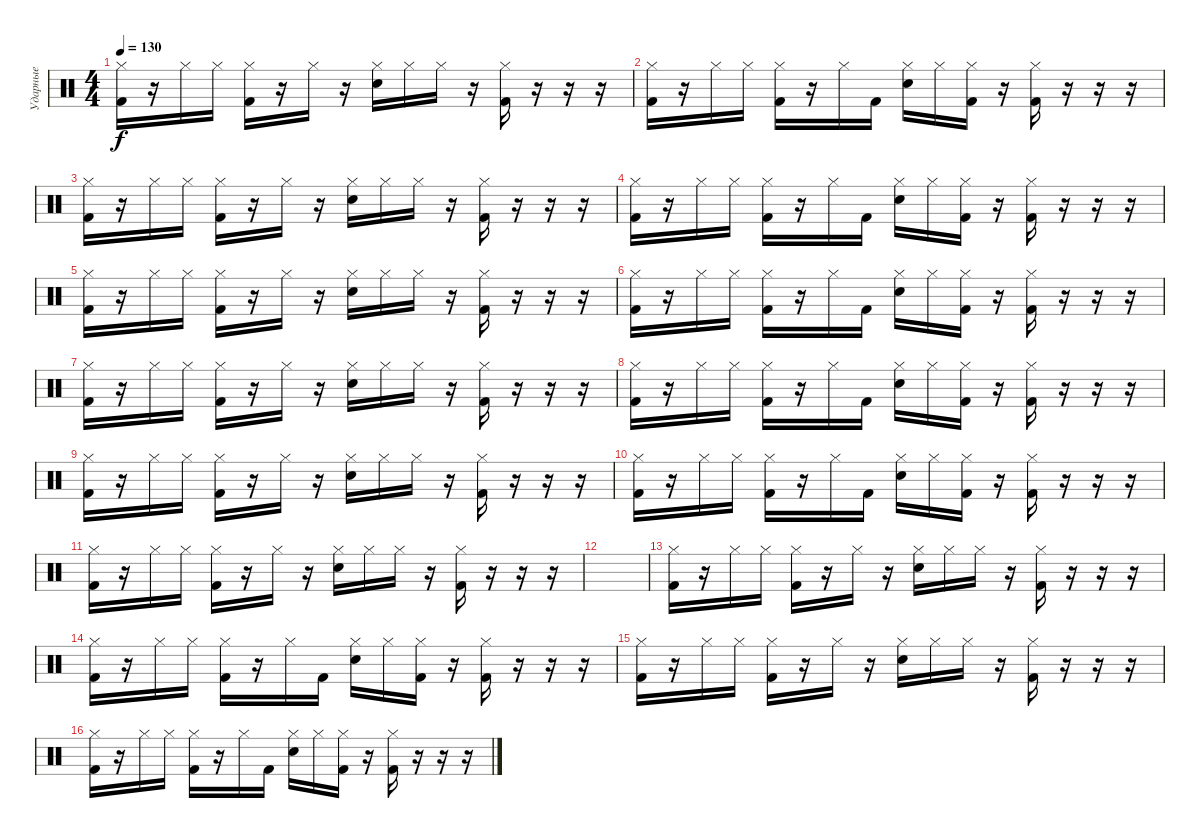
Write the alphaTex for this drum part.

\track ("Ударные" "Ударные") {instrument percussion}
\staff {score}
\articulation defaults
\ts (4 4)
\tempo 130
\clef neutral
\ks c
("Kick (hit) 2" "Hi-Hat (closed)").16{dy f volume 16} r.16 "Hi-Hat (closed)".16 "Hi-Hat (closed)".16 ("Kick (hit) 2" "Hi-Hat (closed)").16 r.16 "Hi-Hat (closed)".16 r.16 ("Snare (hit) 2" "Hi-Hat (closed)").16 "Hi-Hat (closed)".16 "Hi-Hat (closed)".16 r.16 ("Kick (hit) 2" "Hi-Hat (closed)").16 r.16 r.16 r.16 |
("Kick (hit) 2" "Hi-Hat (closed)").16 r.16 "Hi-Hat (closed)".16 "Hi-Hat (closed)".16 ("Kick (hit) 2" "Hi-Hat (closed)").16 r.16 "Hi-Hat (closed)".16 "Kick (hit) 2".16 ("Snare (hit) 2" "Hi-Hat (closed)").16 "Hi-Hat (closed)".16 ("Kick (hit) 2" "Hi-Hat (closed)").16 r.16 ("Kick (hit) 2" "Hi-Hat (closed)").16 r.16 r.16 r.16 |
("Hi-Hat (closed)" "Kick (hit) 2").16 r.16 "Hi-Hat (closed)".16 "Hi-Hat (closed)".16 ("Kick (hit) 2" "Hi-Hat (closed)").16 r.16 "Hi-Hat (closed)".16 r.16 ("Snare (hit) 2" "Hi-Hat (closed)").16 "Hi-Hat (closed)".16 "Hi-Hat (closed)".16 r.16 ("Kick (hit) 2" "Hi-Hat (closed)").16 r.16 r.16 r.16 |
("Kick (hit) 2" "Hi-Hat (closed)").16 r.16 "Hi-Hat (closed)".16 "Hi-Hat (closed)".16 ("Kick (hit) 2" "Hi-Hat (closed)").16 r.16 "Hi-Hat (closed)".16 "Kick (hit) 2".16 ("Snare (hit) 2" "Hi-Hat (closed)").16 "Hi-Hat (closed)".16 ("Kick (hit) 2" "Hi-Hat (closed)").16 r.16 ("Kick (hit) 2" "Hi-Hat (closed)").16 r.16 r.16 r.16 |
("Kick (hit) 2" "Hi-Hat (closed)").16{volume 16} r.16 "Hi-Hat (closed)".16 "Hi-Hat (closed)".16 ("Kick (hit) 2" "Hi-Hat (closed)").16 r.16 "Hi-Hat (closed)".16 r.16 ("Snare (hit) 2" "Hi-Hat (closed)").16 "Hi-Hat (closed)".16 "Hi-Hat (closed)".16 r.16 ("Kick (hit) 2" "Hi-Hat (closed)").16 r.16 r.16 r.16 |
("Kick (hit) 2" "Hi-Hat (closed)").16 r.16 "Hi-Hat (closed)".16 "Hi-Hat (closed)".16 ("Kick (hit) 2" "Hi-Hat (closed)").16 r.16 "Hi-Hat (closed)".16 "Kick (hit) 2".16 ("Snare (hit) 2" "Hi-Hat (closed)").16 "Hi-Hat (closed)".16 ("Kick (hit) 2" "Hi-Hat (closed)").16 r.16 ("Kick (hit) 2" "Hi-Hat (closed)").16 r.16 r.16 r.16 |
("Hi-Hat (closed)" "Kick (hit) 2").16 r.16 "Hi-Hat (closed)".16 "Hi-Hat (closed)".16 ("Kick (hit) 2" "Hi-Hat (closed)").16 r.16 "Hi-Hat (closed)".16 r.16 ("Snare (hit) 2" "Hi-Hat (closed)").16 "Hi-Hat (closed)".16 "Hi-Hat (closed)".16 r.16 ("Kick (hit) 2" "Hi-Hat (closed)").16 r.16 r.16 r.16 |
("Kick (hit) 2" "Hi-Hat (closed)").16 r.16 "Hi-Hat (closed)".16 "Hi-Hat (closed)".16 ("Kick (hit) 2" "Hi-Hat (closed)").16 r.16 "Hi-Hat (closed)".16 "Kick (hit) 2".16 ("Snare (hit) 2" "Hi-Hat (closed)").16 "Hi-Hat (closed)".16 ("Kick (hit) 2" "Hi-Hat (closed)").16 r.16 ("Kick (hit) 2" "Hi-Hat (closed)").16 r.16 r.16 r.16 |
("Kick (hit) 2" "Hi-Hat (closed)").16{volume 16} r.16 "Hi-Hat (closed)".16 "Hi-Hat (closed)".16 ("Kick (hit) 2" "Hi-Hat (closed)").16 r.16 "Hi-Hat (closed)".16 r.16 ("Snare (hit) 2" "Hi-Hat (closed)").16 "Hi-Hat (closed)".16 "Hi-Hat (closed)".16 r.16 ("Kick (hit) 2" "Hi-Hat (closed)").16 r.16 r.16 r.16 |
("Kick (hit) 2" "Hi-Hat (closed)").16 r.16 "Hi-Hat (closed)".16 "Hi-Hat (closed)".16 ("Kick (hit) 2" "Hi-Hat (closed)").16 r.16 "Hi-Hat (closed)".16 "Kick (hit) 2".16 ("Snare (hit) 2" "Hi-Hat (closed)").16 "Hi-Hat (closed)".16 ("Kick (hit) 2" "Hi-Hat (closed)").16 r.16 ("Kick (hit) 2" "Hi-Hat (closed)").16 r.16 r.16 r.16 |
("Hi-Hat (closed)" "Kick (hit) 2").16 r.16 "Hi-Hat (closed)".16 "Hi-Hat (closed)".16 ("Kick (hit) 2" "Hi-Hat (closed)").16 r.16 "Hi-Hat (closed)".16 r.16 ("Snare (hit) 2" "Hi-Hat (closed)").16 "Hi-Hat (closed)".16 "Hi-Hat (closed)".16 r.16 ("Kick (hit) 2" "Hi-Hat (closed)").16 r.16 r.16 r.16 |
|
("Kick (hit) 2" "Hi-Hat (closed)").16{volume 16} r.16 "Hi-Hat (closed)".16 "Hi-Hat (closed)".16 ("Kick (hit) 2" "Hi-Hat (closed)").16 r.16 "Hi-Hat (closed)".16 r.16 ("Snare (hit) 2" "Hi-Hat (closed)").16 "Hi-Hat (closed)".16 "Hi-Hat (closed)".16 r.16 ("Kick (hit) 2" "Hi-Hat (closed)").16 r.16 r.16 r.16 |
("Kick (hit) 2" "Hi-Hat (closed)").16 r.16 "Hi-Hat (closed)".16 "Hi-Hat (closed)".16 ("Kick (hit) 2" "Hi-Hat (closed)").16 r.16 "Hi-Hat (closed)".16 "Kick (hit) 2".16 ("Snare (hit) 2" "Hi-Hat (closed)").16 "Hi-Hat (closed)".16 ("Kick (hit) 2" "Hi-Hat (closed)").16 r.16 ("Kick (hit) 2" "Hi-Hat (closed)").16 r.16 r.16 r.16 |
("Hi-Hat (closed)" "Kick (hit) 2").16 r.16 "Hi-Hat (closed)".16 "Hi-Hat (closed)".16 ("Kick (hit) 2" "Hi-Hat (closed)").16 r.16 "Hi-Hat (closed)".16 r.16 ("Snare (hit) 2" "Hi-Hat (closed)").16 "Hi-Hat (closed)".16 "Hi-Hat (closed)".16 r.16 ("Kick (hit) 2" "Hi-Hat (closed)").16 r.16 r.16 r.16 |
("Kick (hit) 2" "Hi-Hat (closed)").16 r.16 "Hi-Hat (closed)".16 "Hi-Hat (closed)".16 ("Kick (hit) 2" "Hi-Hat (closed)").16 r.16 "Hi-Hat (closed)".16 "Kick (hit) 2".16 ("Snare (hit) 2" "Hi-Hat (closed)").16 "Hi-Hat (closed)".16 ("Kick (hit) 2" "Hi-Hat (closed)").16 r.16 ("Kick (hit) 2" "Hi-Hat (closed)").16 r.16 r.16 r.16
